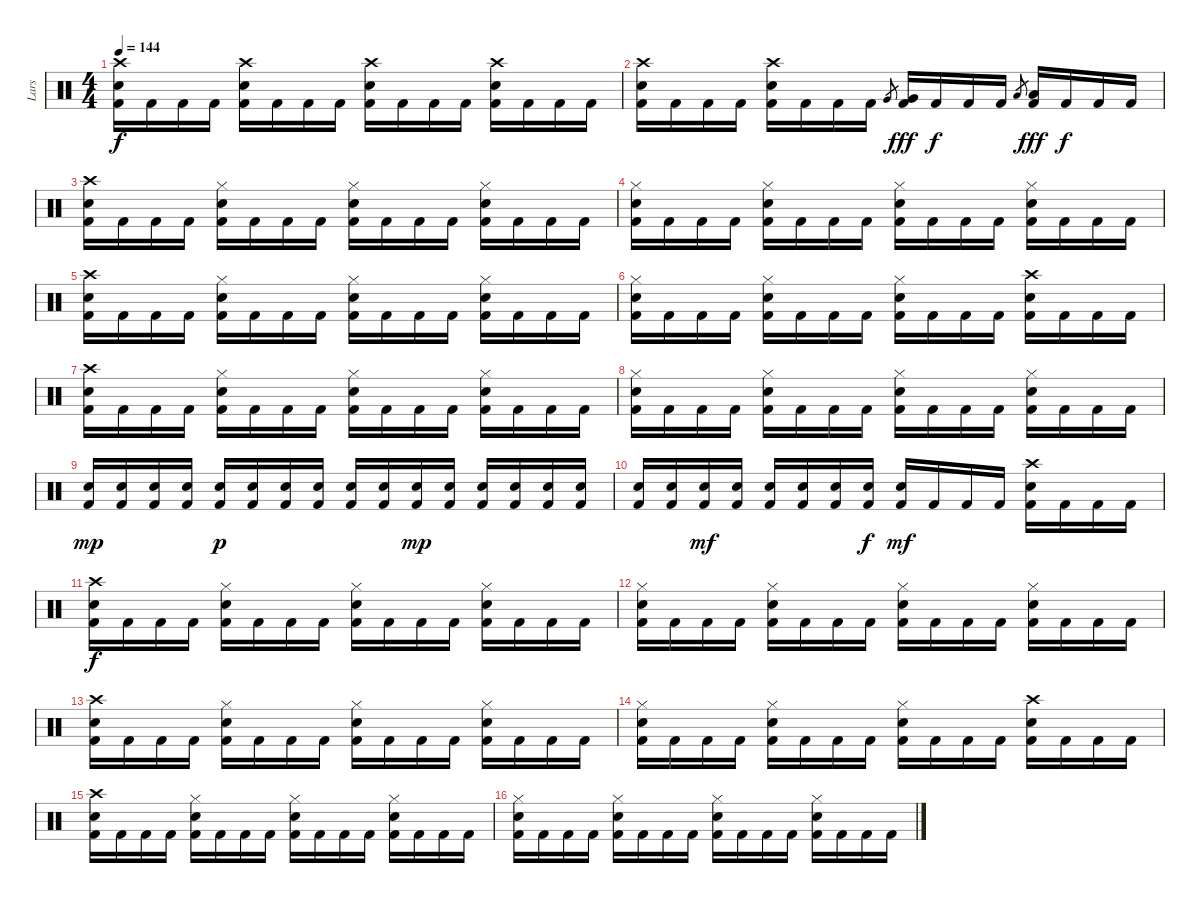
\track ("Lars" "Lars") {instrument percussion}
\staff {score}
\articulation defaults
\ts (4 4)
\tempo 144
\clef neutral
\ks c
("Crash high (hit)" "Snare (hit) 2" "Kick (hit) 2").16{dy f} "Kick (hit) 2".16 "Kick (hit) 2".16 "Kick (hit) 2".16 ("Crash high (hit)" "Snare (hit) 2" "Kick (hit) 2").16 "Kick (hit) 2".16 "Kick (hit) 2".16 "Kick (hit) 2".16 ("Crash high (hit)" "Snare (hit) 2" "Kick (hit) 2").16 "Kick (hit) 2".16 "Kick (hit) 2".16 "Kick (hit) 2".16 ("Crash high (hit)" "Snare (hit) 2" "Kick (hit) 2").16 "Kick (hit) 2".16 "Kick (hit) 2".16 "Kick (hit) 2".16 |
("Crash high (hit)" "Snare (hit) 2" "Kick (hit) 2").16 "Kick (hit) 2".16 "Kick (hit) 2".16 "Kick (hit) 2".16 ("Crash high (hit)" "Snare (hit) 2" "Kick (hit) 2").16 "Kick (hit) 2".16 "Kick (hit) 2".16 "Kick (hit) 2".16 "Very Low Tom (hit)".8{gr} ("Very Low Tom (hit)" "Kick (hit) 2").16{dy fff} "Kick (hit) 2".16{dy f} "Kick (hit) 2".16 "Kick (hit) 2".16 "Low Floor Tom (hit)".8{gr} ("Low Floor Tom (hit)" "Kick (hit) 2").16{dy fff} "Kick (hit) 2".16{dy f} "Kick (hit) 2".16 "Kick (hit) 2".16 |
("Crash high (hit)" "Snare (hit) 2" "Kick (hit) 2").16 "Kick (hit) 2".16 "Kick (hit) 2".16 "Kick (hit) 2".16 ("Hi-Hat (closed)" "Snare (hit) 2" "Kick (hit) 2").16 "Kick (hit) 2".16 "Kick (hit) 2".16 "Kick (hit) 2".16 ("Hi-Hat (closed)" "Snare (hit) 2" "Kick (hit) 2").16 "Kick (hit) 2".16 "Kick (hit) 2".16 "Kick (hit) 2".16 ("Hi-Hat (closed)" "Snare (hit) 2" "Kick (hit) 2").16 "Kick (hit) 2".16 "Kick (hit) 2".16 "Kick (hit) 2".16 |
("Hi-Hat (closed)" "Snare (hit) 2" "Kick (hit) 2").16 "Kick (hit) 2".16 "Kick (hit) 2".16 "Kick (hit) 2".16 ("Hi-Hat (closed)" "Snare (hit) 2" "Kick (hit) 2").16 "Kick (hit) 2".16 "Kick (hit) 2".16 "Kick (hit) 2".16 ("Hi-Hat (closed)" "Snare (hit) 2" "Kick (hit) 2").16 "Kick (hit) 2".16 "Kick (hit) 2".16 "Kick (hit) 2".16 ("Hi-Hat (closed)" "Snare (hit) 2" "Kick (hit) 2").16 "Kick (hit) 2".16 "Kick (hit) 2".16 "Kick (hit) 2".16 |
("Crash high (hit)" "Snare (hit) 2" "Kick (hit) 2").16 "Kick (hit) 2".16 "Kick (hit) 2".16 "Kick (hit) 2".16 ("Hi-Hat (closed)" "Snare (hit) 2" "Kick (hit) 2").16 "Kick (hit) 2".16 "Kick (hit) 2".16 "Kick (hit) 2".16 ("Hi-Hat (closed)" "Snare (hit) 2" "Kick (hit) 2").16 "Kick (hit) 2".16 "Kick (hit) 2".16 "Kick (hit) 2".16 ("Hi-Hat (closed)" "Snare (hit) 2" "Kick (hit) 2").16 "Kick (hit) 2".16 "Kick (hit) 2".16 "Kick (hit) 2".16 |
("Hi-Hat (closed)" "Snare (hit) 2" "Kick (hit) 2").16 "Kick (hit) 2".16 "Kick (hit) 2".16 "Kick (hit) 2".16 ("Hi-Hat (closed)" "Snare (hit) 2" "Kick (hit) 2").16 "Kick (hit) 2".16 "Kick (hit) 2".16 "Kick (hit) 2".16 ("Hi-Hat (closed)" "Snare (hit) 2" "Kick (hit) 2").16 "Kick (hit) 2".16 "Kick (hit) 2".16 "Kick (hit) 2".16 ("Crash high (hit)" "Snare (hit) 2" "Kick (hit) 2").16 "Kick (hit) 2".16 "Kick (hit) 2".16 "Kick (hit) 2".16 |
("Crash high (hit)" "Snare (hit) 2" "Kick (hit) 2").16 "Kick (hit) 2".16 "Kick (hit) 2".16 "Kick (hit) 2".16 ("Hi-Hat (closed)" "Snare (hit) 2" "Kick (hit) 2").16 "Kick (hit) 2".16 "Kick (hit) 2".16 "Kick (hit) 2".16 ("Hi-Hat (closed)" "Snare (hit) 2" "Kick (hit) 2").16 "Kick (hit) 2".16 "Kick (hit) 2".16 "Kick (hit) 2".16 ("Hi-Hat (closed)" "Snare (hit) 2" "Kick (hit) 2").16 "Kick (hit) 2".16 "Kick (hit) 2".16 "Kick (hit) 2".16 |
("Hi-Hat (closed)" "Snare (hit) 2" "Kick (hit) 2").16 "Kick (hit) 2".16 "Kick (hit) 2".16 "Kick (hit) 2".16 ("Hi-Hat (closed)" "Snare (hit) 2" "Kick (hit) 2").16 "Kick (hit) 2".16 "Kick (hit) 2".16 "Kick (hit) 2".16 ("Hi-Hat (closed)" "Snare (hit) 2" "Kick (hit) 2").16 "Kick (hit) 2".16 "Kick (hit) 2".16 "Kick (hit) 2".16 ("Hi-Hat (closed)" "Snare (hit) 2" "Kick (hit) 2").16 "Kick (hit) 2".16 "Kick (hit) 2".16 "Kick (hit) 2".16 |
("Snare (hit) 2" "Kick (hit) 2").16{dy mp} ("Snare (hit) 2" "Kick (hit) 2").16 ("Snare (hit) 2" "Kick (hit) 2").16 ("Snare (hit) 2" "Kick (hit) 2").16 ("Snare (hit) 2" "Kick (hit) 2").16{dy p} ("Snare (hit) 2" "Kick (hit) 2").16 ("Snare (hit) 2" "Kick (hit) 2").16 ("Snare (hit) 2" "Kick (hit) 2").16 ("Snare (hit) 2" "Kick (hit) 2").16 ("Snare (hit) 2" "Kick (hit) 2").16 ("Snare (hit) 2" "Kick (hit) 2").16{dy mp} ("Snare (hit) 2" "Kick (hit) 2").16 ("Snare (hit) 2" "Kick (hit) 2").16 ("Snare (hit) 2" "Kick (hit) 2").16 ("Snare (hit) 2" "Kick (hit) 2").16 ("Snare (hit) 2" "Kick (hit) 2").16 |
("Snare (hit) 2" "Kick (hit) 2").16 ("Snare (hit) 2" "Kick (hit) 2").16 ("Snare (hit) 2" "Kick (hit) 2").16{dy mf} ("Snare (hit) 2" "Kick (hit) 2").16 ("Snare (hit) 2" "Kick (hit) 2").16 ("Snare (hit) 2" "Kick (hit) 2").16 ("Snare (hit) 2" "Kick (hit) 2").16 ("Snare (hit) 2" "Kick (hit) 2").16{dy f} ("Snare (hit) 2" "Kick (hit) 2").16{dy mf} "Kick (hit) 2".16 "Kick (hit) 2".16 "Kick (hit) 2".16 ("Crash high (hit)" "Snare (hit) 2" "Kick (hit) 2").16 "Kick (hit) 2".16 "Kick (hit) 2".16 "Kick (hit) 2".16 |
("Crash high (hit)" "Snare (hit) 2" "Kick (hit) 2").16{dy f} "Kick (hit) 2".16 "Kick (hit) 2".16 "Kick (hit) 2".16 ("Hi-Hat (closed)" "Snare (hit) 2" "Kick (hit) 2").16 "Kick (hit) 2".16 "Kick (hit) 2".16 "Kick (hit) 2".16 ("Hi-Hat (closed)" "Snare (hit) 2" "Kick (hit) 2").16 "Kick (hit) 2".16 "Kick (hit) 2".16 "Kick (hit) 2".16 ("Hi-Hat (closed)" "Snare (hit) 2" "Kick (hit) 2").16 "Kick (hit) 2".16 "Kick (hit) 2".16 "Kick (hit) 2".16 |
("Hi-Hat (closed)" "Snare (hit) 2" "Kick (hit) 2").16 "Kick (hit) 2".16 "Kick (hit) 2".16 "Kick (hit) 2".16 ("Hi-Hat (closed)" "Snare (hit) 2" "Kick (hit) 2").16 "Kick (hit) 2".16 "Kick (hit) 2".16 "Kick (hit) 2".16 ("Hi-Hat (closed)" "Snare (hit) 2" "Kick (hit) 2").16 "Kick (hit) 2".16 "Kick (hit) 2".16 "Kick (hit) 2".16 ("Hi-Hat (closed)" "Snare (hit) 2" "Kick (hit) 2").16 "Kick (hit) 2".16 "Kick (hit) 2".16 "Kick (hit) 2".16 |
("Crash high (hit)" "Snare (hit) 2" "Kick (hit) 2").16 "Kick (hit) 2".16 "Kick (hit) 2".16 "Kick (hit) 2".16 ("Hi-Hat (closed)" "Snare (hit) 2" "Kick (hit) 2").16 "Kick (hit) 2".16 "Kick (hit) 2".16 "Kick (hit) 2".16 ("Hi-Hat (closed)" "Snare (hit) 2" "Kick (hit) 2").16 "Kick (hit) 2".16 "Kick (hit) 2".16 "Kick (hit) 2".16 ("Hi-Hat (closed)" "Snare (hit) 2" "Kick (hit) 2").16 "Kick (hit) 2".16 "Kick (hit) 2".16 "Kick (hit) 2".16 |
("Hi-Hat (closed)" "Snare (hit) 2" "Kick (hit) 2").16 "Kick (hit) 2".16 "Kick (hit) 2".16 "Kick (hit) 2".16 ("Hi-Hat (closed)" "Snare (hit) 2" "Kick (hit) 2").16 "Kick (hit) 2".16 "Kick (hit) 2".16 "Kick (hit) 2".16 ("Hi-Hat (closed)" "Snare (hit) 2" "Kick (hit) 2").16 "Kick (hit) 2".16 "Kick (hit) 2".16 "Kick (hit) 2".16 ("Crash high (hit)" "Snare (hit) 2" "Kick (hit) 2").16 "Kick (hit) 2".16 "Kick (hit) 2".16 "Kick (hit) 2".16 |
("Crash high (hit)" "Snare (hit) 2" "Kick (hit) 2").16 "Kick (hit) 2".16 "Kick (hit) 2".16 "Kick (hit) 2".16 ("Hi-Hat (closed)" "Snare (hit) 2" "Kick (hit) 2").16 "Kick (hit) 2".16 "Kick (hit) 2".16 "Kick (hit) 2".16 ("Hi-Hat (closed)" "Snare (hit) 2" "Kick (hit) 2").16 "Kick (hit) 2".16 "Kick (hit) 2".16 "Kick (hit) 2".16 ("Hi-Hat (closed)" "Snare (hit) 2" "Kick (hit) 2").16 "Kick (hit) 2".16 "Kick (hit) 2".16 "Kick (hit) 2".16 |
("Hi-Hat (closed)" "Snare (hit) 2" "Kick (hit) 2").16 "Kick (hit) 2".16 "Kick (hit) 2".16 "Kick (hit) 2".16 ("Hi-Hat (closed)" "Snare (hit) 2" "Kick (hit) 2").16 "Kick (hit) 2".16 "Kick (hit) 2".16 "Kick (hit) 2".16 ("Hi-Hat (closed)" "Snare (hit) 2" "Kick (hit) 2").16 "Kick (hit) 2".16 "Kick (hit) 2".16 "Kick (hit) 2".16 ("Hi-Hat (closed)" "Snare (hit) 2" "Kick (hit) 2").16 "Kick (hit) 2".16 "Kick (hit) 2".16 "Kick (hit) 2".16
